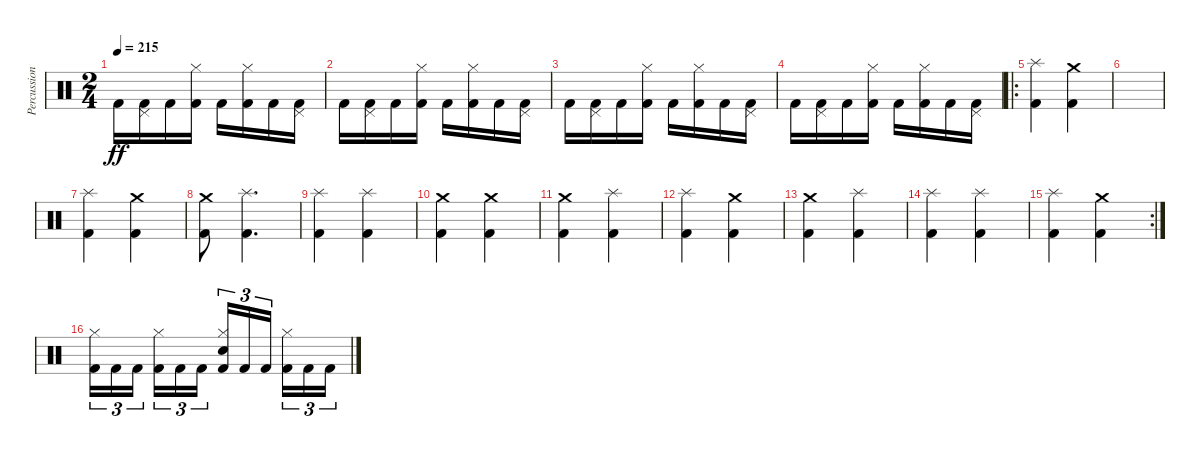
\track ("Percussion" "Percussion") {instrument percussion}
\staff {score}
\articulation defaults
\ts (2 4)
\tempo 215
\clef neutral
\ks c "Kick (hit) 2".16{dy ff}
("Kick (hit) 2" "Pedal Hi-Hat (hit)").16 "Kick (hit) 2".16 ("Kick (hit) 2" "Hi-Hat (closed)").16 "Kick (hit) 2".16 ("Kick (hit) 2" "Hi-Hat (closed)").16 "Kick (hit) 2".16 ("Kick (hit) 2" "Pedal Hi-Hat (hit)").16 |
"Kick (hit) 2".16 ("Kick (hit) 2" "Pedal Hi-Hat (hit)").16 "Kick (hit) 2".16 ("Kick (hit) 2" "Hi-Hat (closed)").16 "Kick (hit) 2".16 ("Kick (hit) 2" "Hi-Hat (closed)").16 "Kick (hit) 2".16 ("Kick (hit) 2" "Pedal Hi-Hat (hit)").16 |
"Kick (hit) 2".16 ("Kick (hit) 2" "Pedal Hi-Hat (hit)").16 "Kick (hit) 2".16 ("Kick (hit) 2" "Hi-Hat (closed)").16 "Kick (hit) 2".16 ("Kick (hit) 2" "Hi-Hat (closed)").16 "Kick (hit) 2".16 ("Kick (hit) 2" "Pedal Hi-Hat (hit)").16 |
"Kick (hit) 2".16 ("Kick (hit) 2" "Pedal Hi-Hat (hit)").16 "Kick (hit) 2".16 ("Kick (hit) 2" "Hi-Hat (closed)").16 "Kick (hit) 2".16 ("Kick (hit) 2" "Hi-Hat (closed)").16 "Kick (hit) 2".16 ("Kick (hit) 2" "Pedal Hi-Hat (hit)").16 |
\ro
("Kick (hit) 2" "Splash (hit)").4 ("Kick (hit) 2" "Crash medium (hit)").4 |
|
("Kick (hit) 2" "Splash (hit)").4 ("Kick (hit) 2" "Crash medium (hit)").4 |
("Kick (hit) 2" "Crash medium (hit)").8 ("Kick (hit) 2" "Splash (hit)").4{d} |
("Kick (hit) 2" "Splash (hit)").4 ("Kick (hit) 2" "Splash (hit)").4 |
("Kick (hit) 2" "Crash medium (hit)").4 ("Kick (hit) 2" "Crash medium (hit)").4 |
("Kick (hit) 2" "Crash medium (hit)").4 ("Kick (hit) 2" "Splash (hit)").4 |
("Kick (hit) 2" "Splash (hit)").4 ("Kick (hit) 2" "Crash medium (hit)").4 |
("Kick (hit) 2" "Crash medium (hit)").4 ("Kick (hit) 2" "Splash (hit)").4 |
("Kick (hit) 2" "Splash (hit)").4 ("Kick (hit) 2" "Splash (hit)").4 |
\rc 2
("Kick (hit) 2" "Splash (hit)").4 ("Kick (hit) 2" "Crash medium (hit)").4 |
("Kick (hit) 2" "Hi-Hat (closed)").16{tu (3 2)} "Kick (hit) 2".16{tu (3 2)} "Kick (hit) 2".16{tu (3 2) beam splitsecondary} ("Kick (hit) 2" "Hi-Hat (closed)").16{tu (3 2)} "Kick (hit) 2".16{tu (3 2)} "Kick (hit) 2".16{tu (3 2)} ("Kick (hit) 2" "Snare (hit) 2" "Hi-Hat (closed)").16{tu (3 2)} "Kick (hit) 2".16{tu (3 2)} "Kick (hit) 2".16{tu (3 2) beam splitsecondary} ("Kick (hit) 2" "Hi-Hat (closed)").16{tu (3 2)} "Kick (hit) 2".16{tu (3 2)} "Kick (hit) 2".16{tu (3 2)}
